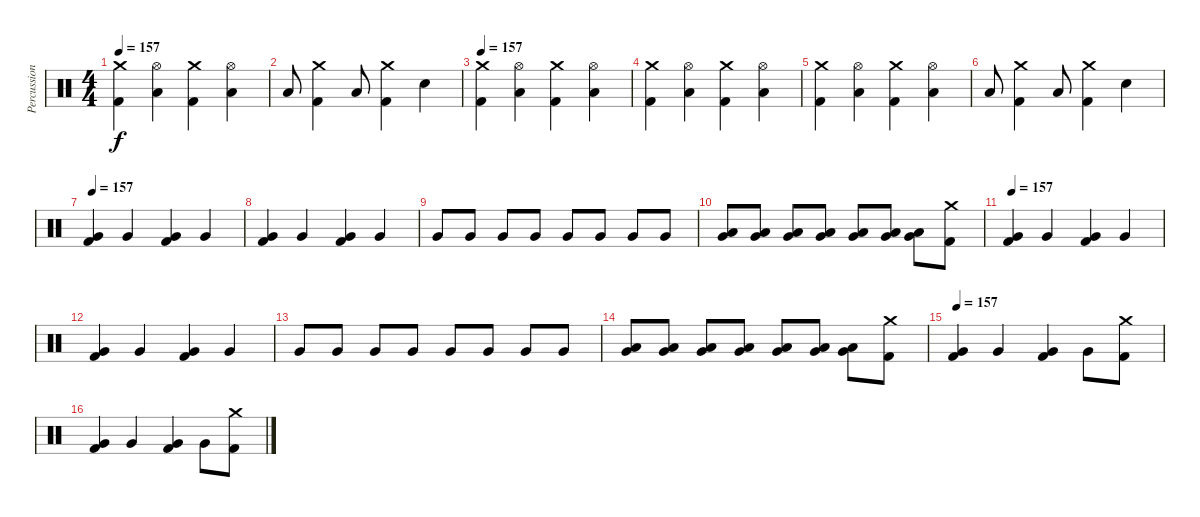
\track ("Percussion" "Percussion") {instrument percussion}
\staff {score}
\articulation defaults
\ts (4 4)
\tempo 157
\clef neutral
\ks c
("Kick (hit) 2" "Crash medium (hit)").4{dy f} ("Low Tom (hit)" "Hi-Hat (open)").4 ("Kick (hit) 2" "Crash medium (hit)").4 ("Low Tom (hit)" "Hi-Hat (open)").4 |
"Low Tom (hit)".8 ("Kick (hit) 2" "Crash medium (hit)").4 "Low Tom (hit)".8 ("Kick (hit) 2" "Crash medium (hit)").4 "Snare (hit) 2".4 |
\tempo 157
("Kick (hit) 2" "Crash medium (hit)").4 ("Low Tom (hit)" "Hi-Hat (open)").4 ("Kick (hit) 2" "Crash medium (hit)").4 ("Low Tom (hit)" "Hi-Hat (open)").4 |
("Kick (hit) 2" "Crash medium (hit)").4 ("Low Tom (hit)" "Hi-Hat (open)").4 ("Kick (hit) 2" "Crash medium (hit)").4 ("Low Tom (hit)" "Hi-Hat (open)").4 |
("Kick (hit) 2" "Crash medium (hit)").4 ("Low Tom (hit)" "Hi-Hat (open)").4 ("Kick (hit) 2" "Crash medium (hit)").4 ("Low Tom (hit)" "Hi-Hat (open)").4 |
"Low Tom (hit)".8 ("Kick (hit) 2" "Crash medium (hit)").4 "Low Tom (hit)".8 ("Kick (hit) 2" "Crash medium (hit)").4 "Snare (hit) 2".4 |
\tempo 157
("Kick (hit) 2" "Very Low Tom (hit)").4 "Very Low Tom (hit)".4 ("Kick (hit) 2" "Very Low Tom (hit)").4 "Very Low Tom (hit)".4 |
("Kick (hit) 2" "Very Low Tom (hit)").4 "Very Low Tom (hit)".4 ("Kick (hit) 2" "Very Low Tom (hit)").4 "Very Low Tom (hit)".4 |
"Very Low Tom (hit)".8 "Very Low Tom (hit)".8 "Very Low Tom (hit)".8 "Very Low Tom (hit)".8 "Very Low Tom (hit)".8 "Very Low Tom (hit)".8 "Very Low Tom (hit)".8 "Very Low Tom (hit)".8 |
("Very Low Tom (hit)" "Low Tom (hit)").8 ("Very Low Tom (hit)" "Low Tom (hit)").8 ("Very Low Tom (hit)" "Low Tom (hit)").8 ("Very Low Tom (hit)" "Low Tom (hit)").8 ("Very Low Tom (hit)" "Low Tom (hit)").8 ("Very Low Tom (hit)" "Low Tom (hit)").8 ("Very Low Tom (hit)" "Low Tom (hit)").8 ("Kick (hit) 2" "Crash medium (hit)").8 |
\tempo 157
("Kick (hit) 2" "Very Low Tom (hit)").4 "Very Low Tom (hit)".4 ("Kick (hit) 2" "Very Low Tom (hit)").4 "Very Low Tom (hit)".4 |
("Kick (hit) 2" "Very Low Tom (hit)").4 "Very Low Tom (hit)".4 ("Kick (hit) 2" "Very Low Tom (hit)").4 "Very Low Tom (hit)".4 |
"Very Low Tom (hit)".8 "Very Low Tom (hit)".8 "Very Low Tom (hit)".8 "Very Low Tom (hit)".8 "Very Low Tom (hit)".8 "Very Low Tom (hit)".8 "Very Low Tom (hit)".8 "Very Low Tom (hit)".8 |
("Very Low Tom (hit)" "Low Tom (hit)").8 ("Very Low Tom (hit)" "Low Tom (hit)").8 ("Very Low Tom (hit)" "Low Tom (hit)").8 ("Very Low Tom (hit)" "Low Tom (hit)").8 ("Very Low Tom (hit)" "Low Tom (hit)").8 ("Very Low Tom (hit)" "Low Tom (hit)").8 ("Very Low Tom (hit)" "Low Tom (hit)").8 ("Kick (hit) 2" "Crash medium (hit)").8 |
\tempo 157
("Kick (hit) 2" "Very Low Tom (hit)").4 "Very Low Tom (hit)".4 ("Kick (hit) 2" "Very Low Tom (hit)").4 "Very Low Tom (hit)".8 ("Kick (hit) 2" "Crash medium (hit)").8 |
("Kick (hit) 2" "Very Low Tom (hit)").4 "Very Low Tom (hit)".4 ("Kick (hit) 2" "Very Low Tom (hit)").4 "Very Low Tom (hit)".8 ("Kick (hit) 2" "Crash medium (hit)").8
